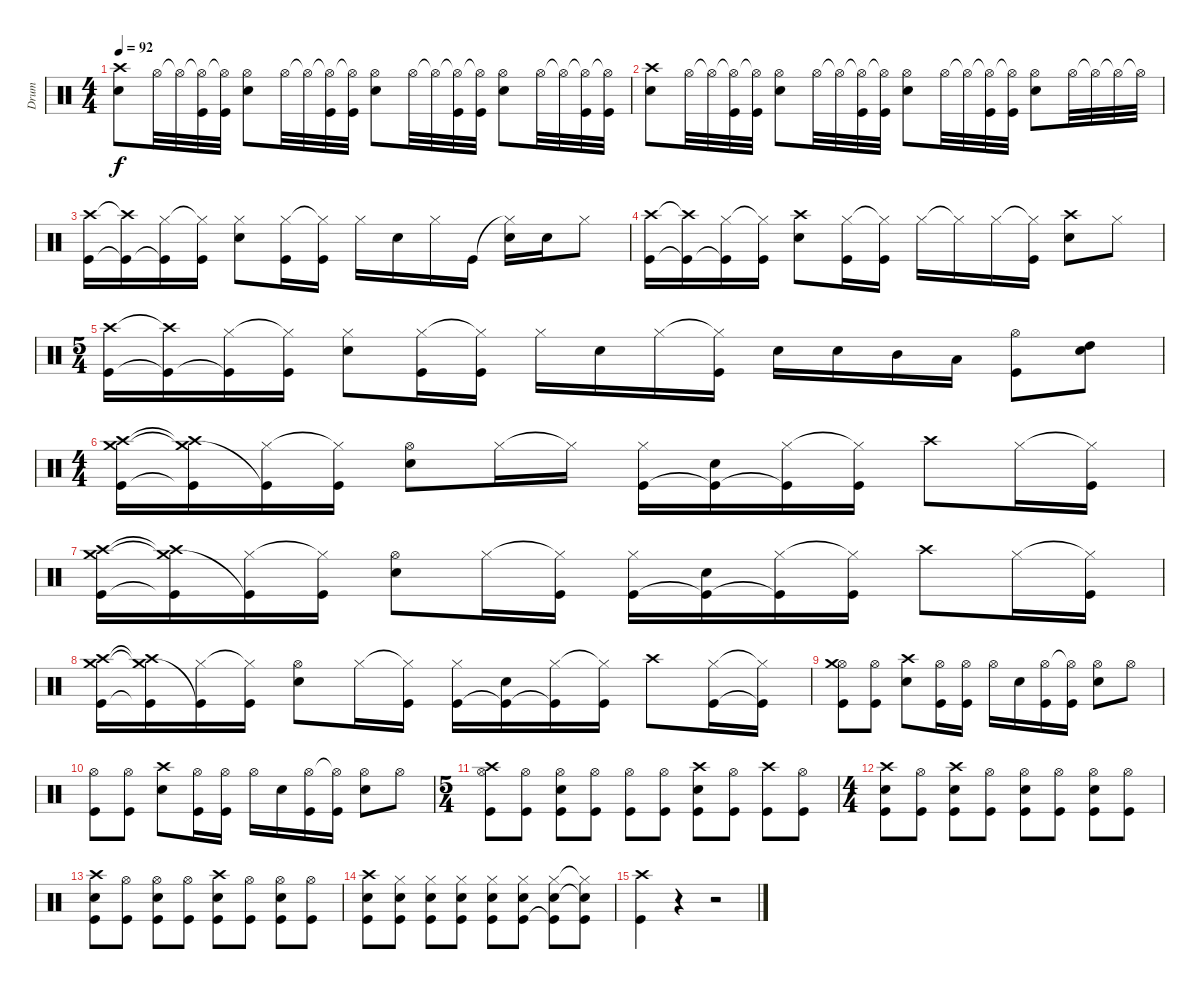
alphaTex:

\track ("Drum" "Drum") {instrument percussion}
\staff {score}
\articulation defaults
\ts (4 4)
\tempo 92
\clef neutral
\ks c
("Crash high (hit)" "Snare (hit) 2").8{dy f} "Hi-Hat (open)".32 "Hi-Hat (open)"{t}.32 ("Hi-Hat (open)"{t} "Kick (hit)").32 ("Hi-Hat (open)"{t} "Kick (hit)").32 ("Hi-Hat (open)" "Snare (hit) 2").8 "Hi-Hat (open)".32 "Hi-Hat (open)"{t}.32 ("Hi-Hat (open)"{t} "Kick (hit)").32 ("Hi-Hat (open)"{t} "Kick (hit)").32 ("Hi-Hat (open)" "Snare (hit) 2").8 "Hi-Hat (open)".32 "Hi-Hat (open)"{t}.32 ("Hi-Hat (open)"{t} "Kick (hit)").32 ("Hi-Hat (open)"{t} "Kick (hit)").32 ("Hi-Hat (open)" "Snare (hit) 2").8 "Hi-Hat (open)".32 "Hi-Hat (open)"{t}.32 ("Hi-Hat (open)"{t} "Kick (hit)").32 ("Hi-Hat (open)"{t} "Kick (hit)").32 |
("Crash high (hit)" "Snare (hit) 2").8 "Hi-Hat (open)".32 "Hi-Hat (open)"{t}.32 ("Hi-Hat (open)"{t} "Kick (hit)").32 ("Hi-Hat (open)"{t} "Kick (hit)").32 ("Hi-Hat (open)" "Snare (hit) 2").8 "Hi-Hat (open)".32 "Hi-Hat (open)"{t}.32 ("Hi-Hat (open)"{t} "Kick (hit)").32 ("Hi-Hat (open)"{t} "Kick (hit)").32 ("Hi-Hat (open)" "Snare (hit) 2").8 "Hi-Hat (open)".32 "Hi-Hat (open)"{t}.32 ("Hi-Hat (open)"{t} "Kick (hit)").32 ("Hi-Hat (open)"{t} "Kick (hit)").32 ("Hi-Hat (open)" "Snare (hit) 2").8 "Hi-Hat (open)".32 "Hi-Hat (open)"{t}.32 "Hi-Hat (open)"{t}.32 "Hi-Hat (open)"{t}.32 |
("Crash high (hit)" "Kick (hit)").16 ("Crash high (hit)"{t} "Kick (hit)"{t}).16 ("Hi-Hat (closed)" "Kick (hit)"{t}).16 ("Hi-Hat (closed)"{t} "Kick (hit)").16 ("Hi-Hat (closed)" "Snare (hit) 2").8 ("Hi-Hat (closed)" "Kick (hit)").16 ("Hi-Hat (closed)"{t} "Kick (hit)").16 "Hi-Hat (closed)".16 "Snare (hit) 2".16 "Hi-Hat (closed)".16 "Kick (hit)".16 ("Hi-Hat (closed)"{t} "Snare (hit) 2").16 "Snare (hit) 2".16 "Hi-Hat (closed)".8 |
("Crash high (hit)" "Kick (hit)").16 ("Crash high (hit)"{t} "Kick (hit)"{t}).16 ("Hi-Hat (closed)" "Kick (hit)"{t}).16 ("Hi-Hat (closed)"{t} "Kick (hit)").16 ("Crash high (hit)" "Snare (hit) 2").8 ("Hi-Hat (closed)" "Kick (hit)").16 ("Hi-Hat (closed)"{t} "Kick (hit)").16 "Hi-Hat (closed)".16 "Hi-Hat (closed)"{t}.16 "Hi-Hat (closed)".16 ("Hi-Hat (closed)"{t} "Kick (hit)").16 ("Crash high (hit)" "Snare (hit) 2").8 "Hi-Hat (closed)".8 |
\ts (5 4)
("Crash high (hit)" "Kick (hit)").16 ("Crash high (hit)"{t} "Kick (hit)"{t}).16 ("Hi-Hat (closed)" "Kick (hit)"{t}).16 ("Hi-Hat (closed)"{t} "Kick (hit)").16 ("Hi-Hat (closed)" "Snare (hit) 2").8 ("Hi-Hat (closed)" "Kick (hit)").16 ("Hi-Hat (closed)"{t} "Kick (hit)").16 "Hi-Hat (closed)".16 "Snare (hit) 2".16 "Hi-Hat (closed)".16 ("Hi-Hat (closed)"{t} "Kick (hit)").16 "Snare (hit) 2".16 "Snare (hit) 2".16 "Mid Tom (hit)".16 "Low Tom (hit)".16 ("Hi-Hat (open)" "Kick (hit)").8 ("High Tom (hit)" "Snare (hit) 2").8 |
\ts (4 4)
("Crash high (hit)" "Crash medium (hit)" "Kick (hit)").16 ("Crash high (hit)"{t} "Crash medium (hit)"{t} "Kick (hit)"{t}).16 ("Hi-Hat (closed)" "Kick (hit)"{t}).16 ("Hi-Hat (closed)"{t} "Kick (hit)").16 ("Hi-Hat (open)" "Snare (hit) 2").8 "Hi-Hat (closed)".16 "Hi-Hat (closed)"{t}.16 ("Hi-Hat (closed)" "Kick (hit)").16 ("Snare (hit) 2" "Kick (hit)"{t}).16 ("Hi-Hat (closed)" "Kick (hit)"{t}).16 ("Hi-Hat (closed)"{t} "Kick (hit)").16 "Crash high (hit)".8 "Hi-Hat (closed)".16 ("Hi-Hat (closed)"{t} "Kick (hit)").16 |
("Crash high (hit)" "Crash medium (hit)" "Kick (hit)").16 ("Crash high (hit)"{t} "Crash medium (hit)"{t} "Kick (hit)"{t}).16 ("Hi-Hat (closed)" "Kick (hit)"{t}).16 ("Hi-Hat (closed)"{t} "Kick (hit)").16 ("Hi-Hat (open)" "Snare (hit) 2").8 "Hi-Hat (closed)".16 ("Hi-Hat (closed)"{t} "Kick (hit)").16 ("Hi-Hat (closed)" "Kick (hit)").16 ("Snare (hit) 2" "Kick (hit)"{t}).16 ("Hi-Hat (closed)" "Kick (hit)"{t}).16 ("Hi-Hat (closed)"{t} "Kick (hit)").16 "Crash high (hit)".8 "Hi-Hat (closed)".16 ("Hi-Hat (closed)"{t} "Kick (hit)").16 |
("Crash high (hit)" "Crash medium (hit)" "Kick (hit)").16 ("Crash high (hit)"{t} "Crash medium (hit)"{t} "Kick (hit)"{t}).16 ("Hi-Hat (closed)" "Kick (hit)"{t}).16 ("Hi-Hat (closed)"{t} "Kick (hit)").16 ("Hi-Hat (open)" "Snare (hit) 2").8 "Hi-Hat (closed)".16 ("Hi-Hat (closed)"{t} "Kick (hit)").16 ("Hi-Hat (closed)" "Kick (hit)").16 ("Snare (hit) 2" "Kick (hit)"{t}).16 ("Hi-Hat (closed)" "Kick (hit)"{t}).16 ("Hi-Hat (closed)"{t} "Kick (hit)").16 "Crash high (hit)".8 ("Hi-Hat (closed)" "Kick (hit)").16 ("Hi-Hat (closed)"{t} "Kick (hit)"{t}).16 |
("Hi-Hat (open)" "Crash medium (hit)" "Kick (hit)").8 ("Hi-Hat (open)" "Kick (hit)").8 ("Crash high (hit)" "Snare (hit) 2").8 ("Hi-Hat (open)" "Kick (hit)").16 ("Hi-Hat (open)" "Kick (hit)").16 "Hi-Hat (open)".16 "Snare (hit) 2".16 ("Hi-Hat (open)" "Kick (hit)").16 ("Hi-Hat (open)"{t} "Kick (hit)").16 ("Hi-Hat (open)" "Snare (hit) 2").8 "Hi-Hat (open)".8 |
("Hi-Hat (open)" "Kick (hit)").8 ("Hi-Hat (open)" "Kick (hit)").8 ("Crash high (hit)" "Snare (hit) 2").8 ("Hi-Hat (open)" "Kick (hit)").16 ("Hi-Hat (open)" "Kick (hit)").16 "Hi-Hat (open)".16 "Snare (hit) 2".16 ("Hi-Hat (open)" "Kick (hit)").16 ("Hi-Hat (open)"{t} "Kick (hit)").16 ("Hi-Hat (open)" "Snare (hit) 2").8 "Hi-Hat (open)".8 |
\ts (5 4)
("Hi-Hat (open)" "Crash high (hit)" "Kick (hit)").8 ("Hi-Hat (open)" "Kick (hit)").8 ("Hi-Hat (open)" "Snare (hit) 2" "Kick (hit)").8 ("Hi-Hat (open)" "Kick (hit)").8 ("Hi-Hat (open)" "Kick (hit)").8 ("Hi-Hat (open)" "Kick (hit)").8 ("Crash high (hit)" "Snare (hit) 2" "Kick (hit)").8 ("Hi-Hat (open)" "Kick (hit)").8 ("Crash high (hit)" "Kick (hit)").8 ("Hi-Hat (open)" "Kick (hit)").8 |
\ts (4 4)
("Crash high (hit)" "Snare (hit) 2" "Kick (hit)").8 ("Hi-Hat (open)" "Kick (hit)").8 ("Crash high (hit)" "Snare (hit) 2" "Kick (hit)").8 ("Hi-Hat (open)" "Kick (hit)").8 ("Hi-Hat (open)" "Snare (hit) 2" "Kick (hit)").8 ("Hi-Hat (open)" "Kick (hit)").8 ("Hi-Hat (open)" "Snare (hit) 2" "Kick (hit)").8 ("Hi-Hat (open)" "Kick (hit)").8 |
("Crash high (hit)" "Snare (hit) 2" "Kick (hit)").8 ("Hi-Hat (open)" "Kick (hit)").8 ("Hi-Hat (open)" "Snare (hit) 2" "Kick (hit)").8 ("Hi-Hat (open)" "Kick (hit)").8 ("Crash high (hit)" "Snare (hit) 2" "Kick (hit)").8 ("Hi-Hat (open)" "Kick (hit)").8 ("Hi-Hat (open)" "Snare (hit) 2" "Kick (hit)").8 ("Hi-Hat (open)" "Kick (hit)").8 |
("Crash high (hit)" "Snare (hit) 2" "Kick (hit)").8 ("Hi-Hat (closed)" "Snare (hit) 2" "Kick (hit)").8 ("Hi-Hat (closed)" "Snare (hit) 2" "Kick (hit)").8 ("Hi-Hat (closed)" "Snare (hit) 2" "Kick (hit)").8 ("Hi-Hat (closed)" "Snare (hit) 2" "Kick (hit)").8 ("Hi-Hat (closed)" "Snare (hit) 2" "Kick (hit)").8 ("Hi-Hat (closed)" "Snare (hit) 2" "Kick (hit)"{t}).8 ("Hi-Hat (closed)"{t} "Snare (hit) 2"{t} "Kick (hit)").8 |
("Crash high (hit)" "Kick (hit)").4 r.4 r.2
